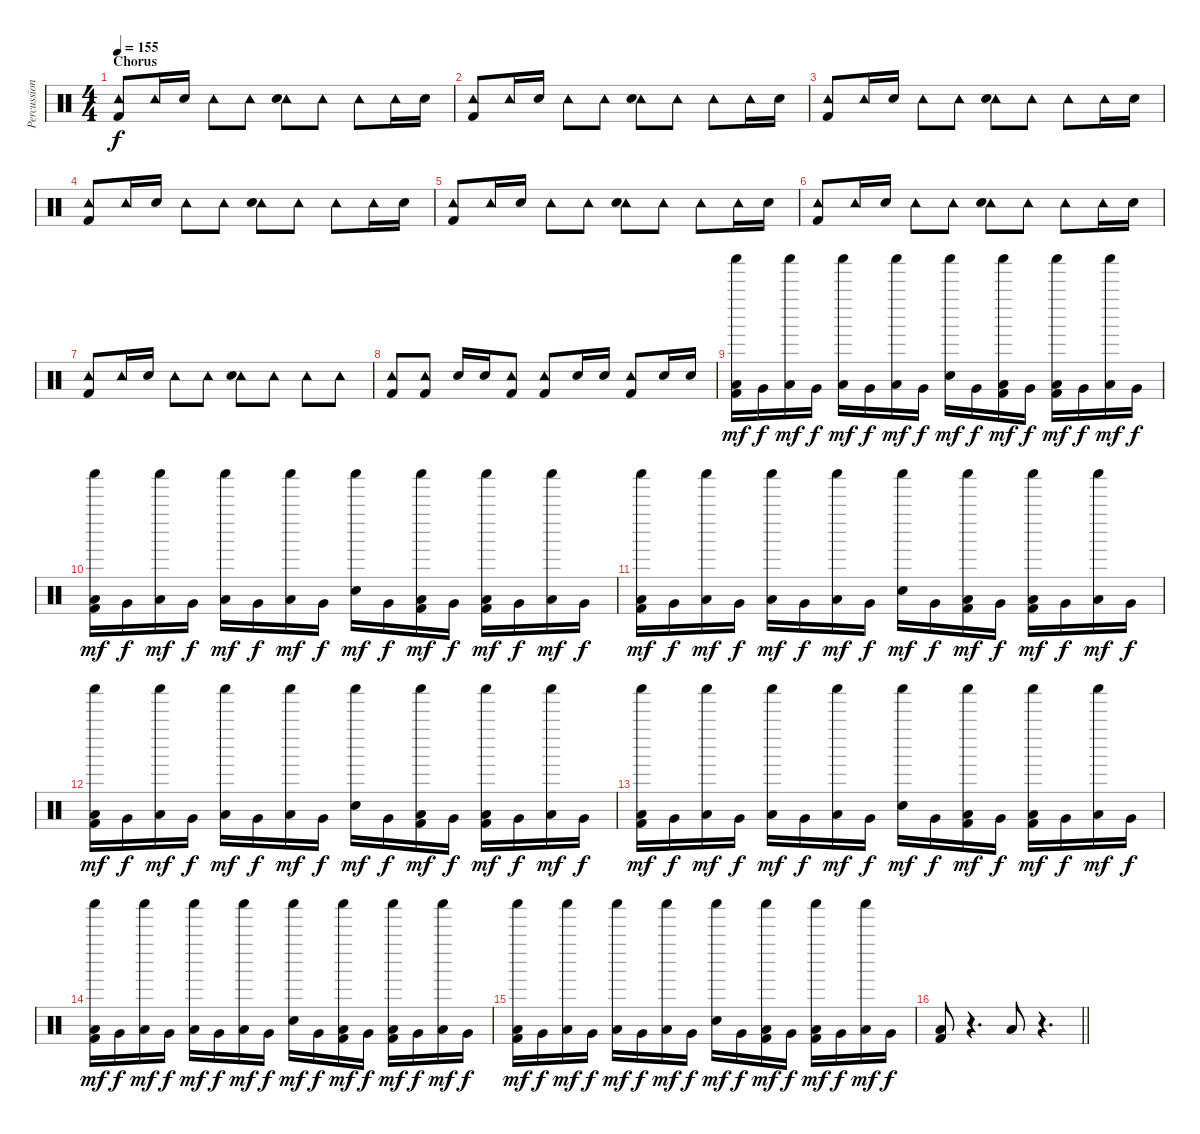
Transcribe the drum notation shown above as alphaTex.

\track ("Percussion" "Percussion") {instrument percussion}
\staff {score}
\articulation defaults
\ts (4 4)
\section ("" "Chorus")
\tempo 155
\clef neutral
\ks c
("Tambourine (hit)" "Kick (hit) 2").8{dy f} "Tambourine (hit)".16 "Electric Snare (hit)".16 "Tambourine (hit)".8 "Tambourine (hit)".8 ("Tambourine (hit)" "Electric Snare (hit)").8 "Tambourine (hit)".8 "Tambourine (hit)".8 "Tambourine (hit)".16 "Electric Snare (hit)".16 |
("Tambourine (hit)" "Kick (hit) 2").8 "Tambourine (hit)".16 "Electric Snare (hit)".16 "Tambourine (hit)".8 "Tambourine (hit)".8 ("Tambourine (hit)" "Electric Snare (hit)").8 "Tambourine (hit)".8 "Tambourine (hit)".8 "Tambourine (hit)".16 "Electric Snare (hit)".16 |
("Tambourine (hit)" "Kick (hit) 2").8 "Tambourine (hit)".16 "Electric Snare (hit)".16 "Tambourine (hit)".8 "Tambourine (hit)".8 ("Tambourine (hit)" "Electric Snare (hit)").8 "Tambourine (hit)".8 "Tambourine (hit)".8 "Tambourine (hit)".16 "Electric Snare (hit)".16 |
("Tambourine (hit)" "Kick (hit) 2").8 "Tambourine (hit)".16 "Electric Snare (hit)".16 "Tambourine (hit)".8 "Tambourine (hit)".8 ("Tambourine (hit)" "Electric Snare (hit)").8 "Tambourine (hit)".8 "Tambourine (hit)".8 "Tambourine (hit)".16 "Electric Snare (hit)".16 |
("Tambourine (hit)" "Kick (hit) 2").8 "Tambourine (hit)".16 "Electric Snare (hit)".16 "Tambourine (hit)".8 "Tambourine (hit)".8 ("Tambourine (hit)" "Electric Snare (hit)").8 "Tambourine (hit)".8 "Tambourine (hit)".8 "Tambourine (hit)".16 "Electric Snare (hit)".16 |
("Tambourine (hit)" "Kick (hit) 2").8 "Tambourine (hit)".16 "Electric Snare (hit)".16 "Tambourine (hit)".8 "Tambourine (hit)".8 ("Tambourine (hit)" "Electric Snare (hit)").8 "Tambourine (hit)".8 "Tambourine (hit)".8 "Tambourine (hit)".16 "Electric Snare (hit)".16 |
("Tambourine (hit)" "Kick (hit) 2").8 "Tambourine (hit)".16 "Electric Snare (hit)".16 "Tambourine (hit)".8 "Tambourine (hit)".8 ("Tambourine (hit)" "Electric Snare (hit)").8 "Tambourine (hit)".8 "Tambourine (hit)".8 "Tambourine (hit)".8 |
("Tambourine (hit)" "Kick (hit) 2").8 ("Tambourine (hit)" "Kick (hit) 2").8 "Electric Snare (hit)".16 "Electric Snare (hit)".16 ("Tambourine (hit)" "Kick (hit) 2").8 ("Tambourine (hit)" "Kick (hit) 2").8 "Electric Snare (hit)".16 "Electric Snare (hit)".16 ("Tambourine (hit)" "Kick (hit) 2").8 "Electric Snare (hit)".16 "Electric Snare (hit)".16 |
("Shaker (hit)" "Low Floor Tom (hit)" "Kick (hit) 2").16{dy mf} "Very Low Tom (hit)".16{dy f} ("Shaker (hit)" "Low Floor Tom (hit)").16{dy mf} "Very Low Tom (hit)".16{dy f} ("Shaker (hit)" "Low Floor Tom (hit)").16{dy mf} "Very Low Tom (hit)".16{dy f} ("Shaker (hit)" "Low Floor Tom (hit)").16{dy mf} "Very Low Tom (hit)".16{dy f} ("Shaker (hit)" "Electric Snare (hit)").16{dy mf} "Very Low Tom (hit)".16{dy f} ("Shaker (hit)" "Low Floor Tom (hit)" "Kick (hit) 2").16{dy mf} "Very Low Tom (hit)".16{dy f} ("Shaker (hit)" "Low Floor Tom (hit)" "Kick (hit) 2").16{dy mf} "Very Low Tom (hit)".16{dy f} ("Shaker (hit)" "Low Floor Tom (hit)").16{dy mf} "Very Low Tom (hit)".16{dy f} |
("Shaker (hit)" "Low Floor Tom (hit)" "Kick (hit) 2").16{dy mf} "Very Low Tom (hit)".16{dy f} ("Shaker (hit)" "Low Floor Tom (hit)").16{dy mf} "Very Low Tom (hit)".16{dy f} ("Shaker (hit)" "Low Floor Tom (hit)").16{dy mf} "Very Low Tom (hit)".16{dy f} ("Shaker (hit)" "Low Floor Tom (hit)").16{dy mf} "Very Low Tom (hit)".16{dy f} ("Shaker (hit)" "Electric Snare (hit)").16{dy mf} "Very Low Tom (hit)".16{dy f} ("Shaker (hit)" "Low Floor Tom (hit)" "Kick (hit) 2").16{dy mf} "Very Low Tom (hit)".16{dy f} ("Shaker (hit)" "Low Floor Tom (hit)" "Kick (hit) 2").16{dy mf} "Very Low Tom (hit)".16{dy f} ("Shaker (hit)" "Low Floor Tom (hit)").16{dy mf} "Very Low Tom (hit)".16{dy f} |
("Shaker (hit)" "Low Floor Tom (hit)" "Kick (hit) 2").16{dy mf} "Very Low Tom (hit)".16{dy f} ("Shaker (hit)" "Low Floor Tom (hit)").16{dy mf} "Very Low Tom (hit)".16{dy f} ("Shaker (hit)" "Low Floor Tom (hit)").16{dy mf} "Very Low Tom (hit)".16{dy f} ("Shaker (hit)" "Low Floor Tom (hit)").16{dy mf} "Very Low Tom (hit)".16{dy f} ("Shaker (hit)" "Electric Snare (hit)").16{dy mf} "Very Low Tom (hit)".16{dy f} ("Shaker (hit)" "Low Floor Tom (hit)" "Kick (hit) 2").16{dy mf} "Very Low Tom (hit)".16{dy f} ("Shaker (hit)" "Low Floor Tom (hit)" "Kick (hit) 2").16{dy mf} "Very Low Tom (hit)".16{dy f} ("Shaker (hit)" "Low Floor Tom (hit)").16{dy mf} "Very Low Tom (hit)".16{dy f} |
("Shaker (hit)" "Low Floor Tom (hit)" "Kick (hit) 2").16{dy mf} "Very Low Tom (hit)".16{dy f} ("Shaker (hit)" "Low Floor Tom (hit)").16{dy mf} "Very Low Tom (hit)".16{dy f} ("Shaker (hit)" "Low Floor Tom (hit)").16{dy mf} "Very Low Tom (hit)".16{dy f} ("Shaker (hit)" "Low Floor Tom (hit)").16{dy mf} "Very Low Tom (hit)".16{dy f} ("Shaker (hit)" "Electric Snare (hit)").16{dy mf} "Very Low Tom (hit)".16{dy f} ("Shaker (hit)" "Low Floor Tom (hit)" "Kick (hit) 2").16{dy mf} "Very Low Tom (hit)".16{dy f} ("Shaker (hit)" "Low Floor Tom (hit)" "Kick (hit) 2").16{dy mf} "Very Low Tom (hit)".16{dy f} ("Shaker (hit)" "Low Floor Tom (hit)").16{dy mf} "Very Low Tom (hit)".16{dy f} |
("Shaker (hit)" "Low Floor Tom (hit)" "Kick (hit) 2").16{dy mf} "Very Low Tom (hit)".16{dy f} ("Shaker (hit)" "Low Floor Tom (hit)").16{dy mf} "Very Low Tom (hit)".16{dy f} ("Shaker (hit)" "Low Floor Tom (hit)").16{dy mf} "Very Low Tom (hit)".16{dy f} ("Shaker (hit)" "Low Floor Tom (hit)").16{dy mf} "Very Low Tom (hit)".16{dy f} ("Shaker (hit)" "Electric Snare (hit)").16{dy mf} "Very Low Tom (hit)".16{dy f} ("Shaker (hit)" "Low Floor Tom (hit)" "Kick (hit) 2").16{dy mf} "Very Low Tom (hit)".16{dy f} ("Shaker (hit)" "Low Floor Tom (hit)" "Kick (hit) 2").16{dy mf} "Very Low Tom (hit)".16{dy f} ("Shaker (hit)" "Low Floor Tom (hit)").16{dy mf} "Very Low Tom (hit)".16{dy f} |
("Shaker (hit)" "Low Floor Tom (hit)" "Kick (hit) 2").16{dy mf} "Very Low Tom (hit)".16{dy f} ("Shaker (hit)" "Low Floor Tom (hit)").16{dy mf} "Very Low Tom (hit)".16{dy f} ("Shaker (hit)" "Low Floor Tom (hit)").16{dy mf} "Very Low Tom (hit)".16{dy f} ("Shaker (hit)" "Low Floor Tom (hit)").16{dy mf} "Very Low Tom (hit)".16{dy f} ("Shaker (hit)" "Electric Snare (hit)").16{dy mf} "Very Low Tom (hit)".16{dy f} ("Shaker (hit)" "Low Floor Tom (hit)" "Kick (hit) 2").16{dy mf} "Very Low Tom (hit)".16{dy f} ("Shaker (hit)" "Low Floor Tom (hit)" "Kick (hit) 2").16{dy mf} "Very Low Tom (hit)".16{dy f} ("Shaker (hit)" "Low Floor Tom (hit)").16{dy mf} "Very Low Tom (hit)".16{dy f} |
("Shaker (hit)" "Low Floor Tom (hit)" "Kick (hit) 2").16{dy mf} "Very Low Tom (hit)".16{dy f} ("Shaker (hit)" "Low Floor Tom (hit)").16{dy mf} "Very Low Tom (hit)".16{dy f} ("Shaker (hit)" "Low Floor Tom (hit)").16{dy mf} "Very Low Tom (hit)".16{dy f} ("Shaker (hit)" "Low Floor Tom (hit)").16{dy mf} "Very Low Tom (hit)".16{dy f} ("Shaker (hit)" "Electric Snare (hit)").16{dy mf} "Very Low Tom (hit)".16{dy f} ("Shaker (hit)" "Low Floor Tom (hit)" "Kick (hit) 2").16{dy mf} "Very Low Tom (hit)".16{dy f} ("Shaker (hit)" "Low Floor Tom (hit)" "Kick (hit) 2").16{dy mf} "Very Low Tom (hit)".16{dy f} ("Shaker (hit)" "Low Floor Tom (hit)").16{dy mf} "Very Low Tom (hit)".16{dy f} |
\barLineRight lightlight
("Low Floor Tom (hit)" "Kick (hit) 2").8 r.4{d} "Low Floor Tom (hit)".8 r.4{d}
